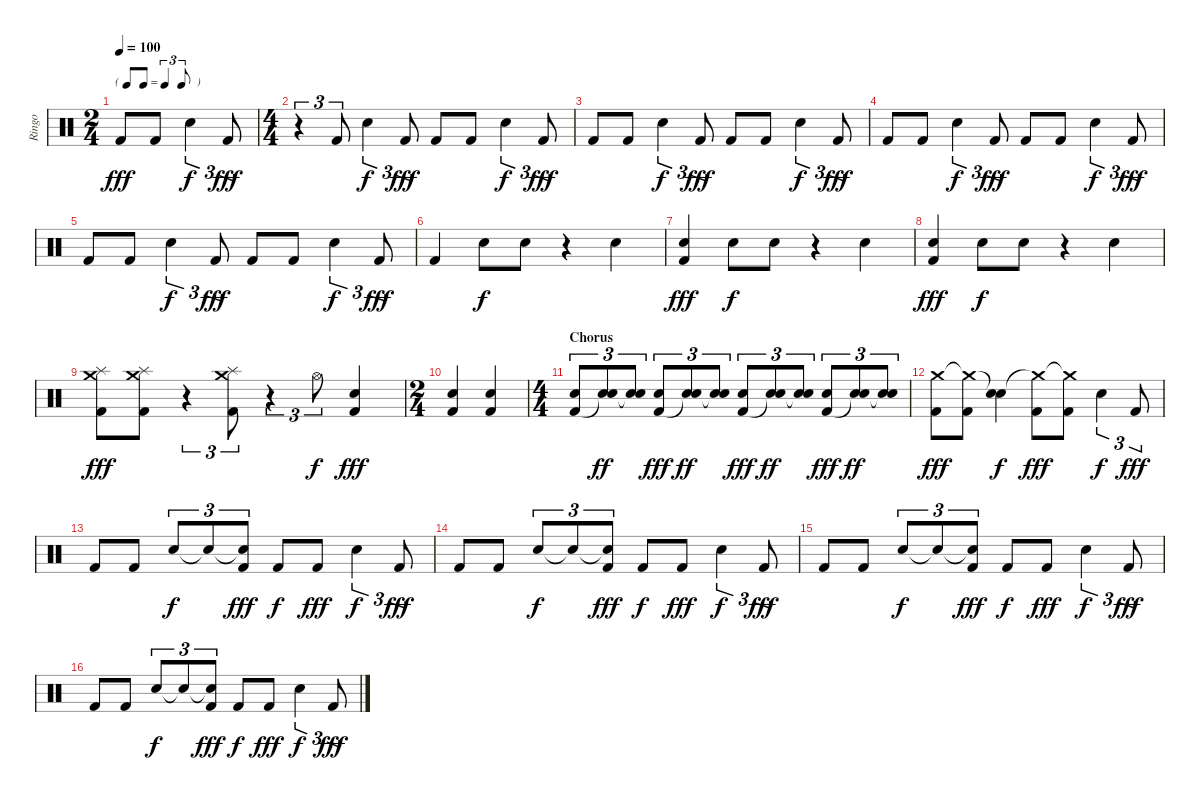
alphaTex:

\track ("Ringo" "Ringo") {instrument percussion}
\staff {score}
\articulation defaults
\ts (2 4)
\tf triplet8th
\tempo 100
\clef neutral
\ks c "Kick (hit) 2".8{dy fff} "Kick (hit) 2".8 "Snare (hit) 2".4{tu (3 2) dy f} "Kick (hit) 2".8{tu (3 2) dy fff}
|
\ts (4 4)
r.4{tu (3 2)} "Kick (hit) 2".8{tu (3 2)} "Snare (hit) 2".4{tu (3 2) dy f} "Kick (hit) 2".8{tu (3 2) dy fff} "Kick (hit) 2".8 "Kick (hit) 2".8 "Snare (hit) 2".4{tu (3 2) dy f} "Kick (hit) 2".8{tu (3 2) dy fff} |
"Kick (hit) 2".8 "Kick (hit) 2".8 "Snare (hit) 2".4{tu (3 2) dy f} "Kick (hit) 2".8{tu (3 2) dy fff} "Kick (hit) 2".8 "Kick (hit) 2".8 "Snare (hit) 2".4{tu (3 2) dy f} "Kick (hit) 2".8{tu (3 2) dy fff} |
"Kick (hit) 2".8 "Kick (hit) 2".8 "Snare (hit) 2".4{tu (3 2) dy f} "Kick (hit) 2".8{tu (3 2) dy fff} "Kick (hit) 2".8 "Kick (hit) 2".8 "Snare (hit) 2".4{tu (3 2) dy f} "Kick (hit) 2".8{tu (3 2) dy fff} |
"Kick (hit) 2".8 "Kick (hit) 2".8 "Snare (hit) 2".4{tu (3 2) dy f} "Kick (hit) 2".8{tu (3 2) dy fff} "Kick (hit) 2".8 "Kick (hit) 2".8 "Snare (hit) 2".4{tu (3 2) dy f} "Kick (hit) 2".8{tu (3 2) dy fff} |
"Kick (hit) 2".4 "Snare (hit) 2".8{dy f} "Snare (hit) 2".8 r.4 "Snare (hit) 2".4 |
("Snare (hit) 2" "Kick (hit) 2").4{dy fff} "Snare (hit) 2".8{dy f} "Snare (hit) 2".8 r.4 "Snare (hit) 2".4 |
("Snare (hit) 2" "Kick (hit) 2").4{dy fff} "Snare (hit) 2".8{dy f} "Snare (hit) 2".8 r.4 "Snare (hit) 2".4 |
("Crash medium (hit)" "Splash (hit)" "Kick (hit) 2").8{dy fff} ("Crash medium (hit)" "Splash (hit)" "Kick (hit) 2").8 r.4{tu (3 2)} ("Crash medium (hit)" "Splash (hit)" "Kick (hit) 2").8{tu (3 2)} r.4{tu (3 2)} "Hi-Hat (open)".8{tu (3 2) dy f} ("Snare (hit) 2" "Kick (hit) 2").4{dy fff} |
\ts (2 4)
("Snare (hit) 2" "Kick (hit) 2").4 ("Snare (hit) 2" "Kick (hit) 2").4 |
\ts (4 4)
\section ("" "Chorus")
("Snare (hit) 2" "Kick (hit) 2").8{tu (3 2)} ("Snare (hit) 2" "Snare (hit)"{t}).8{tu (3 2) dy ff} ("Snare (hit) 2" "Snare (hit)"{t}).8{tu (3 2)} ("Snare (hit) 2" "Kick (hit) 2").8{tu (3 2) dy fff} ("Snare (hit) 2" "Snare (hit)"{t}).8{tu (3 2) dy ff} ("Snare (hit) 2" "Snare (hit)"{t}).8{tu (3 2)} ("Snare (hit) 2" "Kick (hit) 2").8{tu (3 2) dy fff} ("Snare (hit) 2" "Snare (hit)"{t}).8{tu (3 2) dy ff} ("Snare (hit) 2" "Snare (hit)"{t}).8{tu (3 2)} ("Snare (hit) 2" "Kick (hit) 2").8{tu (3 2) dy fff} ("Snare (hit) 2" "Snare (hit)"{t}).8{tu (3 2) dy ff} ("Snare (hit) 2" "Snare (hit)"{t}).8{tu (3 2)} |
("Crash medium (hit)" "Kick (hit) 2").8{dy fff} ("Crash medium (hit)"{t} "Kick (hit) 2").8 ("Snare (hit)"{t} "Snare (hit) 2").4{dy f} ("Crash medium (hit)"{t} "Kick (hit) 2").8{dy fff} ("Crash medium (hit)"{t} "Kick (hit) 2").8 "Snare (hit) 2".4{tu (3 2) dy f} "Kick (hit) 2".8{tu (3 2) dy fff} |
"Kick (hit) 2".8 "Kick (hit) 2".8 "Snare (hit) 2".8{tu (3 2) dy f} "Snare (hit)"{t}.8{tu (3 2)} ("Snare (hit)"{t} "Kick (hit) 2").8{tu (3 2) dy fff} "Kick (hit) 2".8{dy f} "Kick (hit) 2".8{dy fff} "Snare (hit) 2".4{tu (3 2) dy f} "Kick (hit) 2".8{tu (3 2) dy fff} |
"Kick (hit) 2".8 "Kick (hit) 2".8 "Snare (hit) 2".8{tu (3 2) dy f} "Snare (hit)"{t}.8{tu (3 2)} ("Snare (hit)"{t} "Kick (hit) 2").8{tu (3 2) dy fff} "Kick (hit) 2".8{dy f} "Kick (hit) 2".8{dy fff} "Snare (hit) 2".4{tu (3 2) dy f} "Kick (hit) 2".8{tu (3 2) dy fff} |
"Kick (hit) 2".8 "Kick (hit) 2".8 "Snare (hit) 2".8{tu (3 2) dy f} "Snare (hit)"{t}.8{tu (3 2)} ("Snare (hit)"{t} "Kick (hit) 2").8{tu (3 2) dy fff} "Kick (hit) 2".8{dy f} "Kick (hit) 2".8{dy fff} "Snare (hit) 2".4{tu (3 2) dy f} "Kick (hit) 2".8{tu (3 2) dy fff} |
"Kick (hit) 2".8 "Kick (hit) 2".8 "Snare (hit) 2".8{tu (3 2) dy f} "Snare (hit)"{t}.8{tu (3 2)} ("Snare (hit)"{t} "Kick (hit) 2").8{tu (3 2) dy fff} "Kick (hit) 2".8{dy f} "Kick (hit) 2".8{dy fff} "Snare (hit) 2".4{tu (3 2) dy f} "Kick (hit) 2".8{tu (3 2) dy fff}
